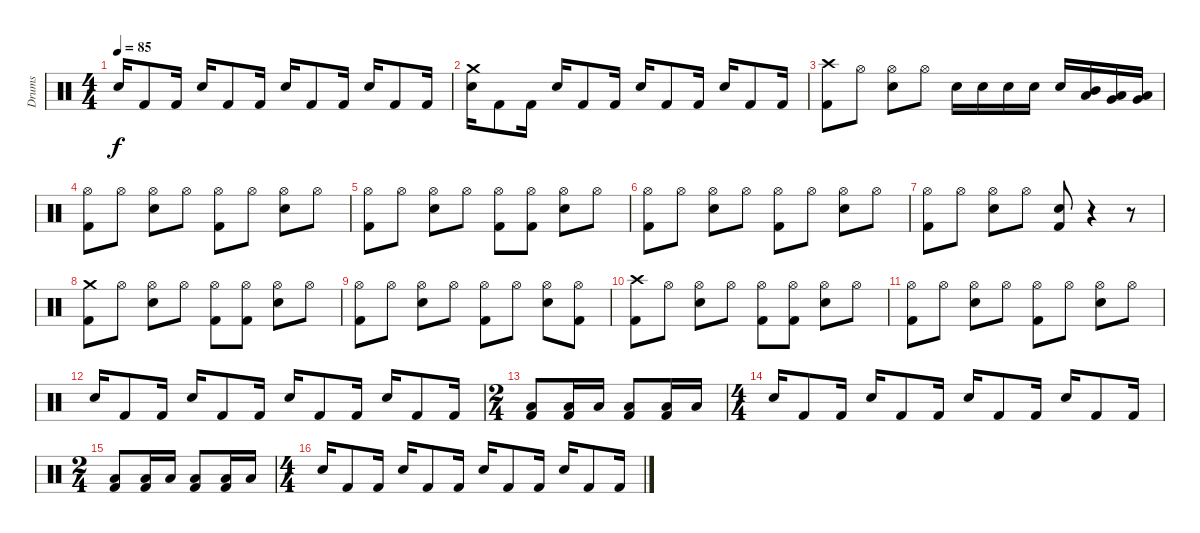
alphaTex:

\track ("Drums" "Drums") {instrument percussion}
\staff {score}
\articulation defaults
\ts (4 4)
\tempo 85
\clef neutral
\ks c "Snare (hit) 2".16{dy f} "Kick (hit) 2".8 "Kick (hit) 2".16 "Snare (hit) 2".16 "Kick (hit) 2".8 "Kick (hit) 2".16 "Snare (hit) 2".16 "Kick (hit) 2".8 "Kick (hit) 2".16 "Snare (hit) 2".16 "Kick (hit) 2".8 "Kick (hit) 2".16
|
("Crash medium (hit)" "Snare (hit) 2").16 "Kick (hit) 2".8 "Kick (hit) 2".16 "Snare (hit) 2".16 "Kick (hit) 2".8 "Kick (hit) 2".16 "Snare (hit) 2".16 "Kick (hit) 2".8 "Kick (hit) 2".16 "Snare (hit) 2".16 "Kick (hit) 2".8 "Kick (hit) 2".16 |
("Crash high (hit)" "Kick (hit) 2").8 "Hi-Hat (open)".8 ("Snare (hit) 2" "Hi-Hat (open)").8 "Hi-Hat (open)".8 "Snare (hit) 2".16 "Snare (hit) 2".16 "Snare (hit) 2".16 "Snare (hit) 2".16 "Snare (hit) 2".16 ("Low Tom (hit)" "Mid Tom (hit)").16 ("Low Tom (hit)" "Very Low Tom (hit)").16 ("Low Floor Tom (hit)" "Very Low Tom (hit)").16 |
("Kick (hit) 2" "Hi-Hat (open)").8 "Hi-Hat (open)".8 ("Snare (hit) 2" "Hi-Hat (open)").8 "Hi-Hat (open)".8 ("Kick (hit) 2" "Hi-Hat (open)").8 "Hi-Hat (open)".8 ("Hi-Hat (open)" "Snare (hit) 2").8 "Hi-Hat (open)".8 |
("Kick (hit) 2" "Hi-Hat (open)").8 "Hi-Hat (open)".8 ("Snare (hit) 2" "Hi-Hat (open)").8 "Hi-Hat (open)".8 ("Kick (hit) 2" "Hi-Hat (open)").8 ("Kick (hit) 2" "Hi-Hat (open)").8 ("Hi-Hat (open)" "Snare (hit) 2").8 "Hi-Hat (open)".8 |
("Kick (hit) 2" "Hi-Hat (open)").8 "Hi-Hat (open)".8 ("Snare (hit) 2" "Hi-Hat (open)").8 "Hi-Hat (open)".8 ("Kick (hit) 2" "Hi-Hat (open)").8 "Hi-Hat (open)".8 ("Hi-Hat (open)" "Snare (hit) 2").8 "Hi-Hat (open)".8 |
("Kick (hit) 2" "Hi-Hat (open)").8 "Hi-Hat (open)".8 ("Hi-Hat (open)" "Snare (hit) 2").8 "Hi-Hat (open)".8 ("Snare (hit) 2" "Kick (hit) 2").8 r.4 r.8 |
("Crash medium (hit)" "Kick (hit) 2").8 "Hi-Hat (open)".8 ("Hi-Hat (open)" "Snare (hit) 2").8 "Hi-Hat (open)".8 ("Kick (hit) 2" "Hi-Hat (open)").8 ("Kick (hit) 2" "Hi-Hat (open)").8 ("Snare (hit) 2" "Hi-Hat (open)").8 "Hi-Hat (open)".8 |
("Kick (hit) 2" "Hi-Hat (open)").8 "Hi-Hat (open)".8 ("Snare (hit) 2" "Hi-Hat (open)").8 "Hi-Hat (open)".8 ("Kick (hit) 2" "Hi-Hat (open)").8 "Hi-Hat (open)".8 ("Snare (hit) 2" "Hi-Hat (open)").8 ("Kick (hit) 2" "Hi-Hat (open)").8 |
("Crash high (hit)" "Kick (hit) 2").8 "Hi-Hat (open)".8 ("Snare (hit) 2" "Hi-Hat (open)").8 "Hi-Hat (open)".8 ("Hi-Hat (open)" "Kick (hit) 2").8 ("Hi-Hat (open)" "Kick (hit) 2").8 ("Hi-Hat (open)" "Snare (hit) 2").8 "Hi-Hat (open)".8 |
("Kick (hit) 2" "Hi-Hat (open)").8 "Hi-Hat (open)".8 ("Hi-Hat (open)" "Snare (hit) 2").8 "Hi-Hat (open)".8 ("Hi-Hat (open)" "Kick (hit) 2").8 "Hi-Hat (open)".8 ("Snare (hit) 2" "Hi-Hat (open)").8 "Hi-Hat (open)".8 |
"Snare (hit) 2".16 "Kick (hit) 2".8 "Kick (hit) 2".16 "Snare (hit) 2".16 "Kick (hit) 2".8 "Kick (hit) 2".16 "Snare (hit) 2".16 "Kick (hit) 2".8 "Kick (hit) 2".16 "Snare (hit) 2".16 "Kick (hit) 2".8 "Kick (hit) 2".16 |
\ts (2 4)
("Low Floor Tom (hit)" "Kick (hit) 2").8 ("Kick (hit) 2" "Low Floor Tom (hit)").16 "Low Floor Tom (hit)".16 ("Low Floor Tom (hit)" "Kick (hit) 2").8 ("Kick (hit) 2" "Low Floor Tom (hit)").16 "Low Floor Tom (hit)".16 |
\ts (4 4)
"Snare (hit) 2".16 "Kick (hit) 2".8 "Kick (hit) 2".16 "Snare (hit) 2".16 "Kick (hit) 2".8 "Kick (hit) 2".16 "Snare (hit) 2".16 "Kick (hit) 2".8 "Kick (hit) 2".16 "Snare (hit) 2".16 "Kick (hit) 2".8 "Kick (hit) 2".16 |
\ts (2 4)
("Low Floor Tom (hit)" "Kick (hit) 2").8 ("Kick (hit) 2" "Low Floor Tom (hit)").16 "Low Floor Tom (hit)".16 ("Low Floor Tom (hit)" "Kick (hit) 2").8 ("Kick (hit) 2" "Low Floor Tom (hit)").16 "Low Floor Tom (hit)".16 |
\ts (4 4)
"Snare (hit) 2".16 "Kick (hit) 2".8 "Kick (hit) 2".16 "Snare (hit) 2".16 "Kick (hit) 2".8 "Kick (hit) 2".16 "Snare (hit) 2".16 "Kick (hit) 2".8 "Kick (hit) 2".16 "Snare (hit) 2".16 "Kick (hit) 2".8 "Kick (hit) 2".16
